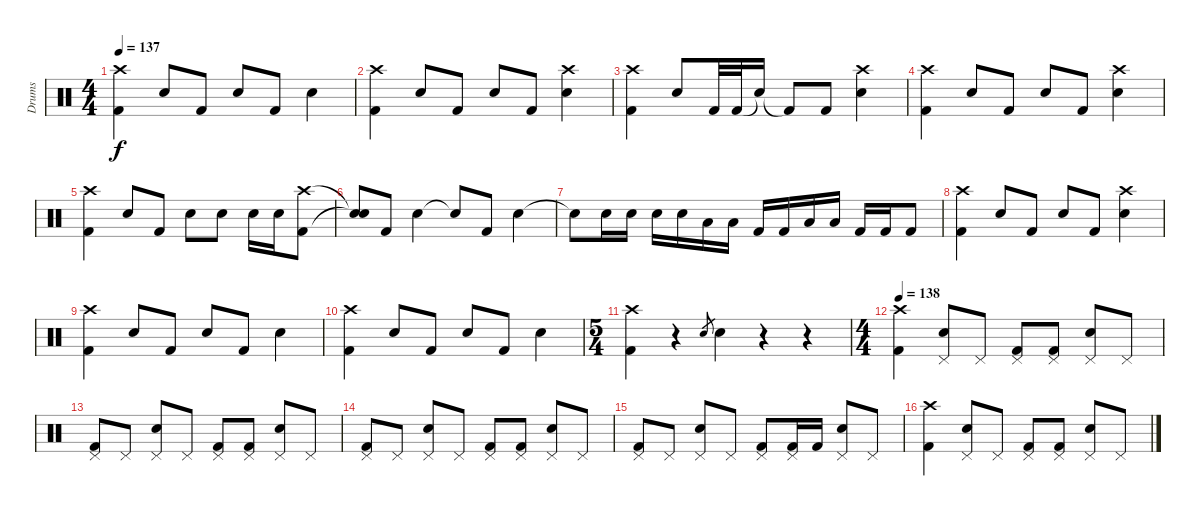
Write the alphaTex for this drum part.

\track ("Drums" "Drums") {instrument percussion}
\staff {score}
\articulation defaults
\ts (4 4)
\tempo 137
\clef neutral
\ks c
("Crash high (hit)" "Kick (hit) 2").4{dy f} "Electric Snare (hit)".8 "Kick (hit) 2".8 "Electric Snare (hit)".8 "Kick (hit) 2".8 "Electric Snare (hit)".4 |
("Crash high (hit)" "Kick (hit) 2").4 "Electric Snare (hit)".8 "Kick (hit) 2".8 "Electric Snare (hit)".8 "Kick (hit) 2".8 ("Crash high (hit)" "Electric Snare (hit)").4 |
("Crash high (hit)" "Kick (hit) 2").4 "Electric Snare (hit)".8 "Kick (hit) 2".32 "Kick (hit) 2".32 "Snare (hit)"{t}.16 "Kick (hit) 2"{t}.8 "Kick (hit) 2".8 ("Crash high (hit)" "Electric Snare (hit)").4 |
("Crash high (hit)" "Kick (hit) 2").4 "Electric Snare (hit)".8 "Kick (hit) 2".8 "Electric Snare (hit)".8 "Kick (hit) 2".8 ("Crash high (hit)" "Electric Snare (hit)").4 |
("Crash high (hit)" "Kick (hit) 2").4 "Electric Snare (hit)".8 "Kick (hit) 2".8 "Electric Snare (hit)".8 "Electric Snare (hit)".8 "Electric Snare (hit)".16 "Electric Snare (hit)".16 ("Crash high (hit)" "Kick (hit) 2").8 |
("Snare (hit)"{t} "Snare (hit)"{t}).8 "Kick (hit) 2".8 "Electric Snare (hit)".4 "Snare (hit)"{t}.8 "Kick (hit) 2".8 "Electric Snare (hit)".4 |
"Snare (hit)"{t}.8 "Electric Snare (hit)".16 "Electric Snare (hit)".16 "Electric Snare (hit)".16 "Electric Snare (hit)".16 "Low Tom (hit)".16 "Low Tom (hit)".16 "Kick (hit) 2".16 "Kick (hit) 2".16 "Low Tom (hit)".16 "Low Tom (hit)".16 "Kick (hit) 2".16 "Kick (hit) 2".16 "Kick (hit) 2".8 |
("Crash high (hit)" "Kick (hit) 2").4 "Electric Snare (hit)".8 "Kick (hit) 2".8 "Electric Snare (hit)".8 "Kick (hit) 2".8 ("Crash high (hit)" "Electric Snare (hit)").4 |
("Crash high (hit)" "Kick (hit) 2").4 "Electric Snare (hit)".8 "Kick (hit) 2".8 "Electric Snare (hit)".8 "Kick (hit) 2".8 "Electric Snare (hit)".4 |
("Crash high (hit)" "Kick (hit) 2").4 "Electric Snare (hit)".8 "Kick (hit) 2".8 "Electric Snare (hit)".8 "Kick (hit) 2".8 "Electric Snare (hit)".4 |
\ts (5 4)
("Crash high (hit)" "Kick (hit) 2").4 r.4 "Electric Snare (hit)".8{gr} "Electric Snare (hit)".4 r.4 r.4 |
\ts (4 4)
\tempo 138
("Crash high (hit)" "Kick (hit) 2").4 ("Pedal Hi-Hat (hit)" "Electric Snare (hit)").8 "Pedal Hi-Hat (hit)".8 ("Pedal Hi-Hat (hit)" "Kick (hit) 2").8 ("Pedal Hi-Hat (hit)" "Kick (hit) 2").8 ("Pedal Hi-Hat (hit)" "Electric Snare (hit)").8 "Pedal Hi-Hat (hit)".8 |
("Pedal Hi-Hat (hit)" "Kick (hit) 2").8 "Pedal Hi-Hat (hit)".8 ("Pedal Hi-Hat (hit)" "Electric Snare (hit)").8 "Pedal Hi-Hat (hit)".8 ("Pedal Hi-Hat (hit)" "Kick (hit) 2").8 ("Pedal Hi-Hat (hit)" "Kick (hit) 2").8 ("Pedal Hi-Hat (hit)" "Electric Snare (hit)").8 "Pedal Hi-Hat (hit)".8 |
("Pedal Hi-Hat (hit)" "Kick (hit) 2").8 "Pedal Hi-Hat (hit)".8 ("Pedal Hi-Hat (hit)" "Electric Snare (hit)").8 "Pedal Hi-Hat (hit)".8 ("Pedal Hi-Hat (hit)" "Kick (hit) 2").8 ("Pedal Hi-Hat (hit)" "Kick (hit) 2").8 ("Pedal Hi-Hat (hit)" "Electric Snare (hit)").8 "Pedal Hi-Hat (hit)".8 |
("Pedal Hi-Hat (hit)" "Kick (hit) 2").8 "Pedal Hi-Hat (hit)".8 ("Pedal Hi-Hat (hit)" "Electric Snare (hit)").8 "Pedal Hi-Hat (hit)".8 ("Pedal Hi-Hat (hit)" "Kick (hit) 2").8 ("Pedal Hi-Hat (hit)" "Kick (hit) 2").16 "Kick (hit) 2".16 ("Pedal Hi-Hat (hit)" "Electric Snare (hit)").8 "Pedal Hi-Hat (hit)".8 |
("Crash high (hit)" "Kick (hit) 2").4 ("Pedal Hi-Hat (hit)" "Electric Snare (hit)").8 "Pedal Hi-Hat (hit)".8 ("Pedal Hi-Hat (hit)" "Kick (hit) 2").8 ("Pedal Hi-Hat (hit)" "Kick (hit) 2").8 ("Pedal Hi-Hat (hit)" "Electric Snare (hit)").8 "Pedal Hi-Hat (hit)".8
